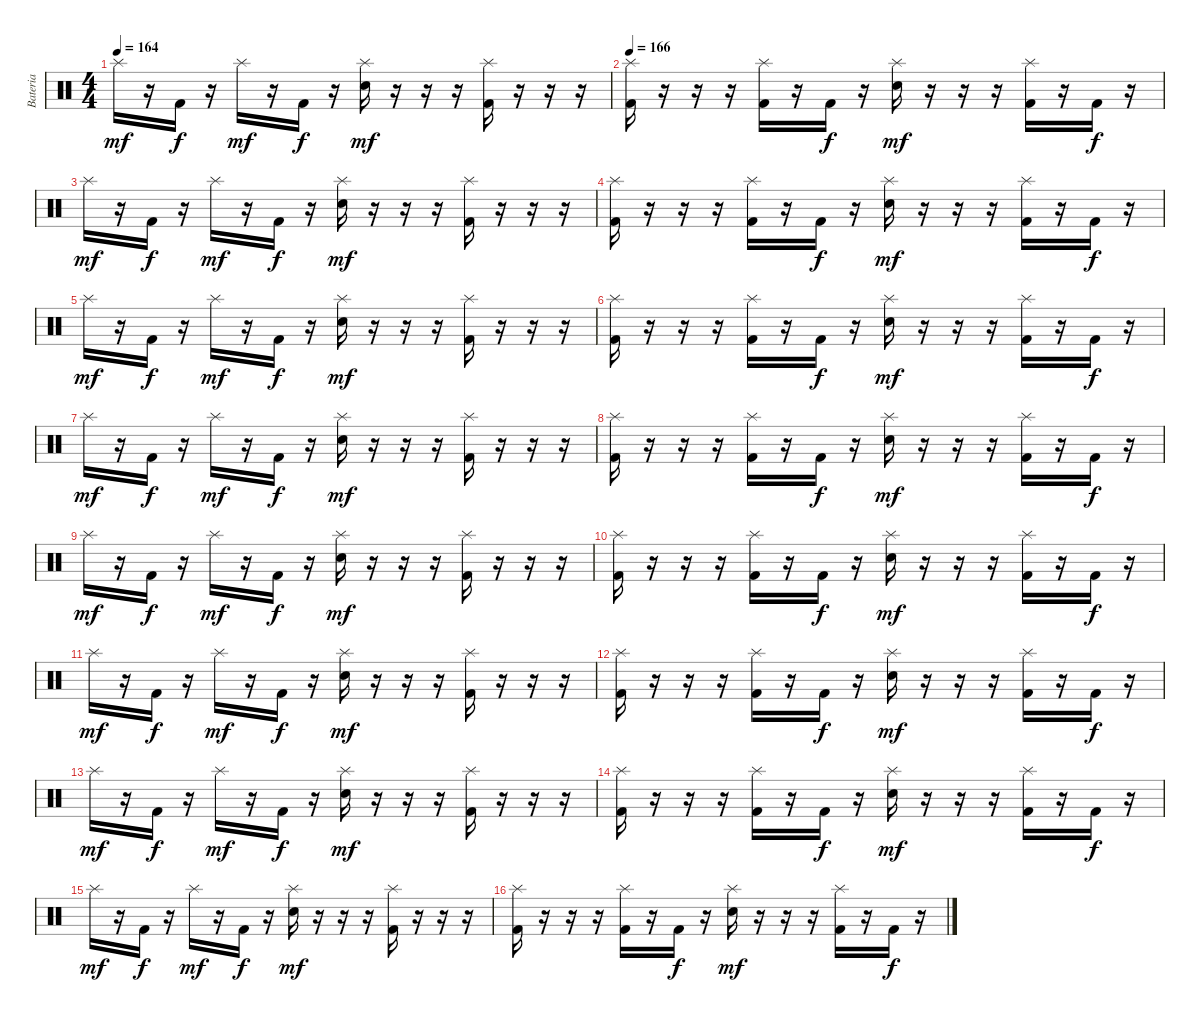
\track ("Bateria" "Bateria") {instrument percussion}
\staff {score}
\articulation defaults
\ts (4 4)
\tempo 164
\clef neutral
\ks c "Splash (hit)".16{dy mf}
r.16 "Kick (hit) 2".16{dy f} r.16 "Splash (hit)".16{dy mf} r.16 "Kick (hit) 2".16{dy f} r.16 ("Splash (hit)" "Electric Snare (hit)").16{dy mf} r.16 r.16 r.16 ("Splash (hit)" "Kick (hit) 2").16 r.16 r.16 r.16 |
\tempo 166
("Splash (hit)" "Kick (hit) 2").16 r.16 r.16 r.16 ("Splash (hit)" "Kick (hit) 2").16 r.16 "Kick (hit) 2".16{dy f} r.16 ("Splash (hit)" "Electric Snare (hit)").16{dy mf} r.16 r.16 r.16 ("Splash (hit)" "Kick (hit) 2").16 r.16 "Kick (hit) 2".16{dy f} r.16 |
"Splash (hit)".16{dy mf} r.16 "Kick (hit) 2".16{dy f} r.16 "Splash (hit)".16{dy mf} r.16 "Kick (hit) 2".16{dy f} r.16 ("Splash (hit)" "Electric Snare (hit)").16{dy mf} r.16 r.16 r.16 ("Splash (hit)" "Kick (hit) 2").16 r.16 r.16 r.16 |
("Splash (hit)" "Kick (hit) 2").16 r.16 r.16 r.16 ("Splash (hit)" "Kick (hit) 2").16 r.16 "Kick (hit) 2".16{dy f} r.16 ("Splash (hit)" "Electric Snare (hit)").16{dy mf} r.16 r.16 r.16 ("Splash (hit)" "Kick (hit) 2").16 r.16 "Kick (hit) 2".16{dy f} r.16 |
"Splash (hit)".16{dy mf} r.16 "Kick (hit) 2".16{dy f} r.16 "Splash (hit)".16{dy mf} r.16 "Kick (hit) 2".16{dy f} r.16 ("Splash (hit)" "Electric Snare (hit)").16{dy mf} r.16 r.16 r.16 ("Splash (hit)" "Kick (hit) 2").16 r.16 r.16 r.16 |
("Splash (hit)" "Kick (hit) 2").16 r.16 r.16 r.16 ("Splash (hit)" "Kick (hit) 2").16 r.16 "Kick (hit) 2".16{dy f} r.16 ("Splash (hit)" "Electric Snare (hit)").16{dy mf} r.16 r.16 r.16 ("Splash (hit)" "Kick (hit) 2").16 r.16 "Kick (hit) 2".16{dy f} r.16 |
"Splash (hit)".16{dy mf} r.16 "Kick (hit) 2".16{dy f} r.16 "Splash (hit)".16{dy mf} r.16 "Kick (hit) 2".16{dy f} r.16 ("Splash (hit)" "Electric Snare (hit)").16{dy mf} r.16 r.16 r.16 ("Splash (hit)" "Kick (hit) 2").16 r.16 r.16 r.16 |
("Splash (hit)" "Kick (hit) 2").16 r.16 r.16 r.16 ("Splash (hit)" "Kick (hit) 2").16 r.16 "Kick (hit) 2".16{dy f} r.16 ("Splash (hit)" "Electric Snare (hit)").16{dy mf} r.16 r.16 r.16 ("Splash (hit)" "Kick (hit) 2").16 r.16 "Kick (hit) 2".16{dy f} r.16 |
"Splash (hit)".16{dy mf} r.16 "Kick (hit) 2".16{dy f} r.16 "Splash (hit)".16{dy mf} r.16 "Kick (hit) 2".16{dy f} r.16 ("Splash (hit)" "Electric Snare (hit)").16{dy mf} r.16 r.16 r.16 ("Splash (hit)" "Kick (hit) 2").16 r.16 r.16 r.16 |
("Splash (hit)" "Kick (hit) 2").16 r.16 r.16 r.16 ("Splash (hit)" "Kick (hit) 2").16 r.16 "Kick (hit) 2".16{dy f} r.16 ("Splash (hit)" "Electric Snare (hit)").16{dy mf} r.16 r.16 r.16 ("Splash (hit)" "Kick (hit) 2").16 r.16 "Kick (hit) 2".16{dy f} r.16 |
"Splash (hit)".16{dy mf} r.16 "Kick (hit) 2".16{dy f} r.16 "Splash (hit)".16{dy mf} r.16 "Kick (hit) 2".16{dy f} r.16 ("Splash (hit)" "Electric Snare (hit)").16{dy mf} r.16 r.16 r.16 ("Splash (hit)" "Kick (hit) 2").16 r.16 r.16 r.16 |
("Splash (hit)" "Kick (hit) 2").16 r.16 r.16 r.16 ("Splash (hit)" "Kick (hit) 2").16 r.16 "Kick (hit) 2".16{dy f} r.16 ("Splash (hit)" "Electric Snare (hit)").16{dy mf} r.16 r.16 r.16 ("Splash (hit)" "Kick (hit) 2").16 r.16 "Kick (hit) 2".16{dy f} r.16 |
"Splash (hit)".16{dy mf} r.16 "Kick (hit) 2".16{dy f} r.16 "Splash (hit)".16{dy mf} r.16 "Kick (hit) 2".16{dy f} r.16 ("Splash (hit)" "Electric Snare (hit)").16{dy mf} r.16 r.16 r.16 ("Splash (hit)" "Kick (hit) 2").16 r.16 r.16 r.16 |
("Splash (hit)" "Kick (hit) 2").16 r.16 r.16 r.16 ("Splash (hit)" "Kick (hit) 2").16 r.16 "Kick (hit) 2".16{dy f} r.16 ("Splash (hit)" "Electric Snare (hit)").16{dy mf} r.16 r.16 r.16 ("Splash (hit)" "Kick (hit) 2").16 r.16 "Kick (hit) 2".16{dy f} r.16 |
"Splash (hit)".16{dy mf} r.16 "Kick (hit) 2".16{dy f} r.16 "Splash (hit)".16{dy mf} r.16 "Kick (hit) 2".16{dy f} r.16 ("Splash (hit)" "Electric Snare (hit)").16{dy mf} r.16 r.16 r.16 ("Splash (hit)" "Kick (hit) 2").16 r.16 r.16 r.16 |
("Splash (hit)" "Kick (hit) 2").16 r.16 r.16 r.16 ("Splash (hit)" "Kick (hit) 2").16 r.16 "Kick (hit) 2".16{dy f} r.16 ("Splash (hit)" "Electric Snare (hit)").16{dy mf} r.16 r.16 r.16 ("Splash (hit)" "Kick (hit) 2").16 r.16 "Kick (hit) 2".16{dy f} r.16
